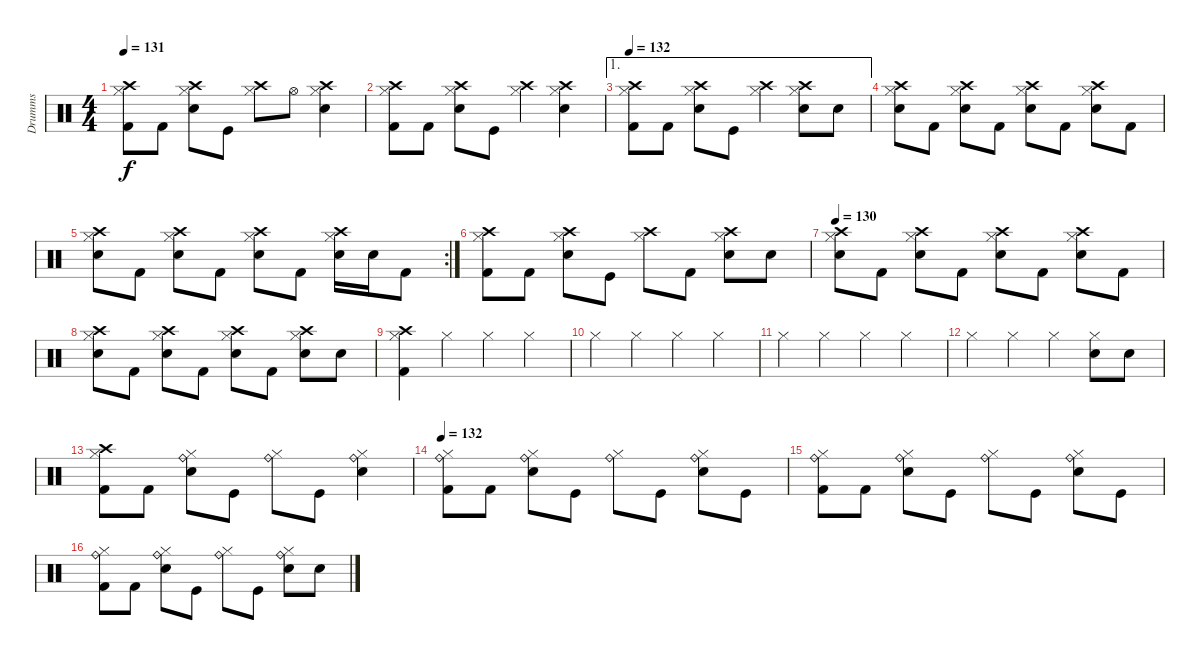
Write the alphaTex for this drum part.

\track ("Drumms" "Drumms") {instrument percussion}
\staff {score}
\articulation defaults
\ts (4 4)
\tempo 131
\clef neutral
\ks c
("Crash high (hit)" "Kick (hit) 2" "Hi-Hat (closed)").8{dy f} "Kick (hit) 2".8 ("Snare (hit) 2" "Crash high (hit)" "Hi-Hat (closed)").8 "Kick (hit)".8 ("Crash high (hit)" "Hi-Hat (closed)").8 "Hi-Hat (open)".8 ("Snare (hit) 2" "Crash high (hit)" "Hi-Hat (closed)").4 |
("Crash high (hit)" "Kick (hit) 2" "Hi-Hat (closed)").8 "Kick (hit) 2".8 ("Snare (hit) 2" "Crash high (hit)" "Hi-Hat (closed)").8 "Kick (hit)".8 ("Crash high (hit)" "Hi-Hat (closed)").4 ("Hi-Hat (closed)" "Snare (hit) 2" "Crash high (hit)").4 |
\ae 1
\tempo 132
("Crash high (hit)" "Kick (hit) 2" "Hi-Hat (closed)").8 "Kick (hit) 2".8 ("Snare (hit) 2" "Crash high (hit)" "Hi-Hat (closed)").8 "Kick (hit)".8 ("Crash high (hit)" "Hi-Hat (closed)").4 ("Hi-Hat (closed)" "Snare (hit) 2" "Crash high (hit)").8 "Snare (hit) 2".8 |
("Crash high (hit)" "Snare (hit) 2" "Hi-Hat (closed)").8 "Kick (hit) 2".8 ("Crash high (hit)" "Snare (hit) 2" "Hi-Hat (closed)").8 "Kick (hit) 2".8 ("Crash high (hit)" "Snare (hit) 2" "Hi-Hat (closed)").8 "Kick (hit) 2".8 ("Crash high (hit)" "Snare (hit) 2" "Hi-Hat (closed)").8 "Kick (hit) 2".8 |
\rc 2
("Crash high (hit)" "Snare (hit) 2" "Hi-Hat (closed)").8 "Kick (hit) 2".8 ("Crash high (hit)" "Snare (hit) 2" "Hi-Hat (closed)").8 "Kick (hit) 2".8 ("Crash high (hit)" "Snare (hit) 2" "Hi-Hat (closed)").8 "Kick (hit) 2".8 ("Crash high (hit)" "Snare (hit) 2" "Hi-Hat (closed)").16 "Snare (hit) 2".16 "Kick (hit) 2".8 |
("Crash high (hit)" "Kick (hit) 2" "Hi-Hat (closed)").8 "Kick (hit) 2".8 ("Snare (hit) 2" "Crash high (hit)" "Hi-Hat (closed)").8 "Kick (hit)".8 ("Crash high (hit)" "Hi-Hat (closed)").8 "Kick (hit) 2".8 ("Hi-Hat (closed)" "Snare (hit) 2" "Crash high (hit)").8 "Snare (hit) 2".8 |
\tempo 130
("Crash high (hit)" "Snare (hit) 2" "Hi-Hat (closed)").8 "Kick (hit) 2".8 ("Crash high (hit)" "Snare (hit) 2" "Hi-Hat (closed)").8 "Kick (hit) 2".8 ("Crash high (hit)" "Snare (hit) 2" "Hi-Hat (closed)").8 "Kick (hit) 2".8 ("Crash high (hit)" "Snare (hit) 2" "Hi-Hat (closed)").8 "Kick (hit) 2".8 |
("Crash high (hit)" "Snare (hit) 2" "Hi-Hat (closed)").8 "Kick (hit) 2".8 ("Crash high (hit)" "Snare (hit) 2" "Hi-Hat (closed)").8 "Kick (hit) 2".8 ("Crash high (hit)" "Snare (hit) 2" "Hi-Hat (closed)").8 "Kick (hit) 2".8 ("Crash high (hit)" "Snare (hit) 2" "Hi-Hat (closed)").8 "Snare (hit) 2".8 |
("Crash high (hit)" "Kick (hit) 2" "Hi-Hat (closed)").4 "Hi-Hat (closed)".4 "Hi-Hat (closed)".4 "Hi-Hat (closed)".4 |
"Hi-Hat (closed)".4 "Hi-Hat (closed)".4 "Hi-Hat (closed)".4 "Hi-Hat (closed)".4 |
"Hi-Hat (closed)".4 "Hi-Hat (closed)".4 "Hi-Hat (closed)".4 "Hi-Hat (closed)".4 |
"Hi-Hat (closed)".4 "Hi-Hat (closed)".4 "Hi-Hat (closed)".4 ("Hi-Hat (closed)" "Snare (hit) 2").8 "Snare (hit) 2".8 |
("Crash high (hit)" "Kick (hit) 2" "Hi-Hat (closed)").8 "Kick (hit) 2".8 ("Snare (hit) 2" "Ride (bell)" "Hi-Hat (closed)").8 "Kick (hit)".8 ("Ride (bell)" "Hi-Hat (closed)").8 "Kick (hit)".8 ("Snare (hit) 2" "Hi-Hat (closed)" "Ride (bell)").4 |
\tempo 132
("Ride (bell)" "Kick (hit) 2" "Hi-Hat (closed)").8 "Kick (hit) 2".8 ("Snare (hit) 2" "Ride (bell)" "Hi-Hat (closed)").8 "Kick (hit)".8 ("Ride (bell)" "Hi-Hat (closed)").8 "Kick (hit)".8 ("Snare (hit) 2" "Ride (bell)" "Hi-Hat (closed)").8 "Kick (hit)".8 |
("Ride (bell)" "Kick (hit) 2" "Hi-Hat (closed)").8 "Kick (hit) 2".8 ("Snare (hit) 2" "Ride (bell)" "Hi-Hat (closed)").8 "Kick (hit)".8 ("Ride (bell)" "Hi-Hat (closed)").8 "Kick (hit)".8 ("Snare (hit) 2" "Ride (bell)" "Hi-Hat (closed)").8 "Kick (hit)".8 |
("Ride (bell)" "Kick (hit) 2" "Hi-Hat (closed)").8 "Kick (hit) 2".8 ("Snare (hit) 2" "Ride (bell)" "Hi-Hat (closed)").8 "Kick (hit)".8 ("Ride (bell)" "Hi-Hat (closed)").8 "Kick (hit)".8 ("Snare (hit) 2" "Ride (bell)" "Hi-Hat (closed)").8 "Snare (hit) 2".8
